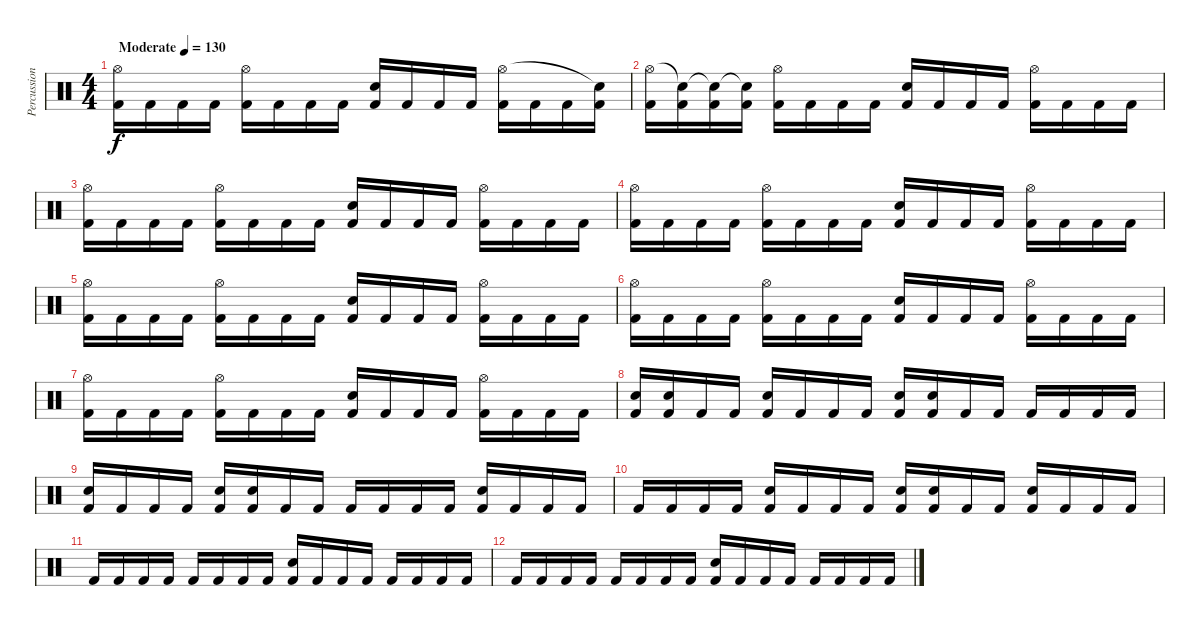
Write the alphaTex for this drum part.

\track ("Percussioni" "Percussion") {instrument percussion}
\staff {score}
\articulation defaults
\ts (4 4)
\tempo (130 "Moderate")
\clef neutral
\ks c
("Kick (hit) 2" "Hi-Hat (open)").16{dy f} "Kick (hit) 2".16 "Kick (hit) 2".16 "Kick (hit) 2".16 ("Kick (hit) 2" "Hi-Hat (open)").16 "Kick (hit) 2".16 "Kick (hit) 2".16 "Kick (hit) 2".16 ("Kick (hit) 2" "Snare (hit) 2").16 "Kick (hit) 2".16 "Kick (hit) 2".16 "Kick (hit) 2".16 ("Kick (hit) 2" "Hi-Hat (open)").16 "Kick (hit) 2".16 "Kick (hit) 2".16 ("Kick (hit) 2" "Snare (hit)"{t}).16 |
("Kick (hit) 2" "Hi-Hat (open)").16 ("Kick (hit) 2" "Snare (hit)"{t}).16 ("Kick (hit) 2" "Snare (hit)"{t}).16 ("Kick (hit) 2" "Snare (hit)"{t}).16 ("Kick (hit) 2" "Hi-Hat (open)").16 "Kick (hit) 2".16 "Kick (hit) 2".16 "Kick (hit) 2".16 ("Kick (hit) 2" "Snare (hit) 2").16 "Kick (hit) 2".16 "Kick (hit) 2".16 "Kick (hit) 2".16 ("Kick (hit) 2" "Hi-Hat (open)").16 "Kick (hit) 2".16 "Kick (hit) 2".16 "Kick (hit) 2".16 |
("Kick (hit) 2" "Hi-Hat (open)").16 "Kick (hit) 2".16 "Kick (hit) 2".16 "Kick (hit) 2".16 ("Kick (hit) 2" "Hi-Hat (open)").16 "Kick (hit) 2".16 "Kick (hit) 2".16 "Kick (hit) 2".16 ("Kick (hit) 2" "Snare (hit) 2").16 "Kick (hit) 2".16 "Kick (hit) 2".16 "Kick (hit) 2".16 ("Kick (hit) 2" "Hi-Hat (open)").16 "Kick (hit) 2".16 "Kick (hit) 2".16 "Kick (hit) 2".16 |
("Kick (hit) 2" "Hi-Hat (open)").16 "Kick (hit) 2".16 "Kick (hit) 2".16 "Kick (hit) 2".16 ("Kick (hit) 2" "Hi-Hat (open)").16 "Kick (hit) 2".16 "Kick (hit) 2".16 "Kick (hit) 2".16 ("Kick (hit) 2" "Snare (hit) 2").16 "Kick (hit) 2".16 "Kick (hit) 2".16 "Kick (hit) 2".16 ("Kick (hit) 2" "Hi-Hat (open)").16 "Kick (hit) 2".16 "Kick (hit) 2".16 "Kick (hit) 2".16 |
("Kick (hit) 2" "Hi-Hat (open)").16 "Kick (hit) 2".16 "Kick (hit) 2".16 "Kick (hit) 2".16 ("Kick (hit) 2" "Hi-Hat (open)").16 "Kick (hit) 2".16 "Kick (hit) 2".16 "Kick (hit) 2".16 ("Kick (hit) 2" "Snare (hit) 2").16 "Kick (hit) 2".16 "Kick (hit) 2".16 "Kick (hit) 2".16 ("Kick (hit) 2" "Hi-Hat (open)").16 "Kick (hit) 2".16 "Kick (hit) 2".16 "Kick (hit) 2".16 |
("Kick (hit) 2" "Hi-Hat (open)").16 "Kick (hit) 2".16 "Kick (hit) 2".16 "Kick (hit) 2".16 ("Kick (hit) 2" "Hi-Hat (open)").16 "Kick (hit) 2".16 "Kick (hit) 2".16 "Kick (hit) 2".16 ("Kick (hit) 2" "Snare (hit) 2").16 "Kick (hit) 2".16 "Kick (hit) 2".16 "Kick (hit) 2".16 ("Kick (hit) 2" "Hi-Hat (open)").16 "Kick (hit) 2".16 "Kick (hit) 2".16 "Kick (hit) 2".16 |
("Kick (hit) 2" "Hi-Hat (open)").16 "Kick (hit) 2".16 "Kick (hit) 2".16 "Kick (hit) 2".16 ("Kick (hit) 2" "Hi-Hat (open)").16 "Kick (hit) 2".16 "Kick (hit) 2".16 "Kick (hit) 2".16 ("Kick (hit) 2" "Snare (hit) 2").16 "Kick (hit) 2".16 "Kick (hit) 2".16 "Kick (hit) 2".16 ("Kick (hit) 2" "Hi-Hat (open)").16 "Kick (hit) 2".16 "Kick (hit) 2".16 "Kick (hit) 2".16 |
("Kick (hit) 2" "Snare (hit) 2").16 ("Kick (hit) 2" "Snare (hit) 2").16 "Kick (hit) 2".16 "Kick (hit) 2".16 ("Kick (hit) 2" "Snare (hit) 2").16 "Kick (hit) 2".16 "Kick (hit) 2".16 "Kick (hit) 2".16 ("Kick (hit) 2" "Snare (hit) 2").16 ("Kick (hit) 2" "Snare (hit) 2").16 "Kick (hit) 2".16 "Kick (hit) 2".16 "Kick (hit) 2".16 "Kick (hit) 2".16 "Kick (hit) 2".16 "Kick (hit) 2".16 |
("Kick (hit) 2" "Snare (hit) 2").16 "Kick (hit) 2".16 "Kick (hit) 2".16 "Kick (hit) 2".16 ("Kick (hit) 2" "Snare (hit) 2").16 ("Kick (hit) 2" "Snare (hit) 2").16 "Kick (hit) 2".16 "Kick (hit) 2".16 "Kick (hit) 2".16 "Kick (hit) 2".16 "Kick (hit) 2".16 "Kick (hit) 2".16 ("Kick (hit) 2" "Snare (hit) 2").16 "Kick (hit) 2".16 "Kick (hit) 2".16 "Kick (hit) 2".16 |
"Kick (hit) 2".16 "Kick (hit) 2".16 "Kick (hit) 2".16 "Kick (hit) 2".16 ("Kick (hit) 2" "Snare (hit) 2").16 "Kick (hit) 2".16 "Kick (hit) 2".16 "Kick (hit) 2".16 ("Kick (hit) 2" "Snare (hit) 2").16 ("Kick (hit) 2" "Snare (hit) 2").16 "Kick (hit) 2".16 "Kick (hit) 2".16 ("Kick (hit) 2" "Snare (hit) 2").16 "Kick (hit) 2".16 "Kick (hit) 2".16 "Kick (hit) 2".16 |
"Kick (hit) 2".16 "Kick (hit) 2".16 "Kick (hit) 2".16 "Kick (hit) 2".16 "Kick (hit) 2".16 "Kick (hit) 2".16 "Kick (hit) 2".16 "Kick (hit) 2".16 ("Kick (hit) 2" "Snare (hit) 2").16 "Kick (hit) 2".16 "Kick (hit) 2".16 "Kick (hit) 2".16 "Kick (hit) 2".16 "Kick (hit) 2".16 "Kick (hit) 2".16 "Kick (hit) 2".16 |
"Kick (hit) 2".16 "Kick (hit) 2".16 "Kick (hit) 2".16 "Kick (hit) 2".16 "Kick (hit) 2".16 "Kick (hit) 2".16 "Kick (hit) 2".16 "Kick (hit) 2".16 ("Kick (hit) 2" "Snare (hit) 2").16 "Kick (hit) 2".16 "Kick (hit) 2".16 "Kick (hit) 2".16 "Kick (hit) 2".16 "Kick (hit) 2".16 "Kick (hit) 2".16 "Kick (hit) 2".16
